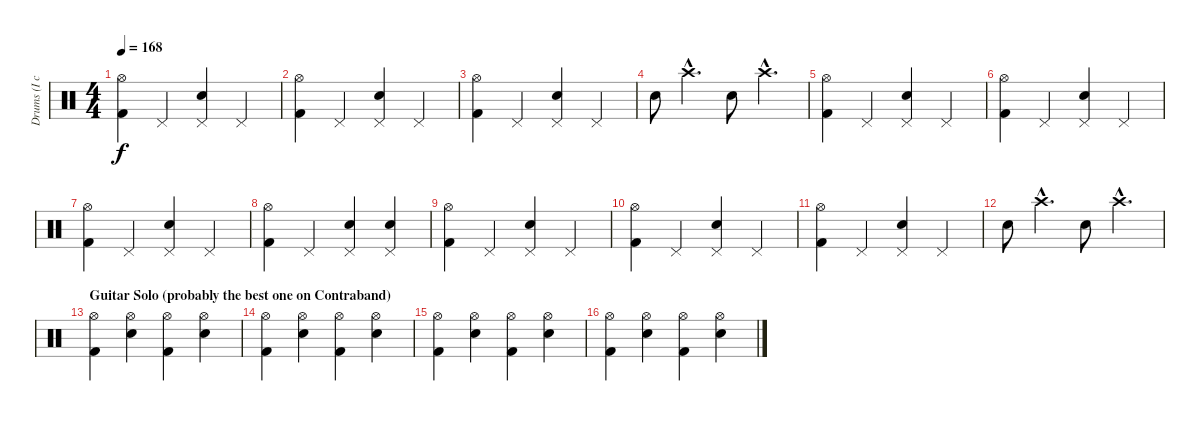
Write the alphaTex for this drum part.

\track ("Drums (I can't tab drums too well...)" "Drums (I c") {instrument percussion}
\staff {score}
\articulation defaults
\ts (4 4)
\tempo 168
\clef neutral
\ks c
("Hi-Hat (open)" "Kick (hit) 2").4{dy f} "Pedal Hi-Hat (hit)".4 ("Pedal Hi-Hat (hit)" "Snare (hit) 2").4 "Pedal Hi-Hat (hit)".4 |
("Hi-Hat (open)" "Kick (hit) 2").4 "Pedal Hi-Hat (hit)".4 ("Pedal Hi-Hat (hit)" "Snare (hit) 2").4 "Pedal Hi-Hat (hit)".4 |
("Hi-Hat (open)" "Kick (hit) 2").4 "Pedal Hi-Hat (hit)".4 ("Pedal Hi-Hat (hit)" "Snare (hit) 2").4 "Pedal Hi-Hat (hit)".4 |
"Snare (hit) 2".8 "Crash high (hit)"{hac}.4{d} "Snare (hit) 2".8 "Crash high (hit)"{hac}.4{d} |
("Hi-Hat (open)" "Kick (hit) 2").4 "Pedal Hi-Hat (hit)".4 ("Pedal Hi-Hat (hit)" "Snare (hit) 2").4 "Pedal Hi-Hat (hit)".4 |
("Hi-Hat (open)" "Kick (hit) 2").4 "Pedal Hi-Hat (hit)".4 ("Pedal Hi-Hat (hit)" "Snare (hit) 2").4 "Pedal Hi-Hat (hit)".4 |
("Hi-Hat (open)" "Kick (hit) 2").4 "Pedal Hi-Hat (hit)".4 ("Pedal Hi-Hat (hit)" "Snare (hit) 2").4 "Pedal Hi-Hat (hit)".4 |
("Hi-Hat (open)" "Kick (hit) 2").4 "Pedal Hi-Hat (hit)".4 ("Pedal Hi-Hat (hit)" "Snare (hit) 2").4 ("Pedal Hi-Hat (hit)" "Snare (hit) 2").4 |
("Hi-Hat (open)" "Kick (hit) 2").4 "Pedal Hi-Hat (hit)".4 ("Pedal Hi-Hat (hit)" "Snare (hit) 2").4 "Pedal Hi-Hat (hit)".4 |
("Hi-Hat (open)" "Kick (hit) 2").4 "Pedal Hi-Hat (hit)".4 ("Pedal Hi-Hat (hit)" "Snare (hit) 2").4 "Pedal Hi-Hat (hit)".4 |
("Hi-Hat (open)" "Kick (hit) 2").4 "Pedal Hi-Hat (hit)".4 ("Pedal Hi-Hat (hit)" "Snare (hit) 2").4 "Pedal Hi-Hat (hit)".4 |
"Snare (hit) 2".8 "Crash high (hit)"{hac}.4{d} "Snare (hit) 2".8 "Crash high (hit)"{hac}.4{d} |
\section ("" "Guitar Solo (probably the best one on Contraband)")
("Hi-Hat (open)" "Kick (hit) 2").4 ("Hi-Hat (open)" "Snare (hit) 2").4 ("Hi-Hat (open)" "Kick (hit) 2").4 ("Hi-Hat (open)" "Snare (hit) 2").4 |
("Hi-Hat (open)" "Kick (hit) 2").4 ("Hi-Hat (open)" "Snare (hit) 2").4 ("Hi-Hat (open)" "Kick (hit) 2").4 ("Hi-Hat (open)" "Snare (hit) 2").4 |
("Hi-Hat (open)" "Kick (hit) 2").4 ("Hi-Hat (open)" "Snare (hit) 2").4 ("Hi-Hat (open)" "Kick (hit) 2").4 ("Hi-Hat (open)" "Snare (hit) 2").4 |
("Hi-Hat (open)" "Kick (hit) 2").4 ("Hi-Hat (open)" "Snare (hit) 2").4 ("Hi-Hat (open)" "Kick (hit) 2").4 ("Hi-Hat (open)" "Snare (hit) 2").4
